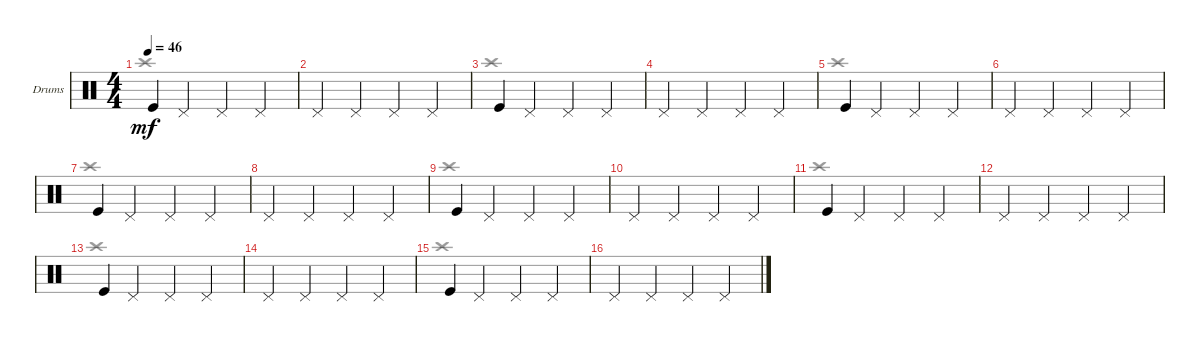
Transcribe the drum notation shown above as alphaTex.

\defaultSystemsLayout 4
\bracketExtendMode groupsimilarinstruments
\firstSystemTrackNameOrientation horizontal
\otherSystemsTrackNameOrientation horizontal
\track ("PETER CRISS" "Drums") {solo instrument percussion}
\staff {score}
\articulation defaults
\voice
\ts (4 4)
\tempo 46
\clef neutral
\ks aminor "Kick (hit)".4{dy mf} "Pedal Hi-Hat (hit)".4 "Pedal Hi-Hat (hit)".4 "Pedal Hi-Hat (hit)".4
|
"Pedal Hi-Hat (hit)".4 "Pedal Hi-Hat (hit)".4 "Pedal Hi-Hat (hit)".4 "Pedal Hi-Hat (hit)".4 |
"Kick (hit)".4 "Pedal Hi-Hat (hit)".4 "Pedal Hi-Hat (hit)".4 "Pedal Hi-Hat (hit)".4 |
"Pedal Hi-Hat (hit)".4 "Pedal Hi-Hat (hit)".4 "Pedal Hi-Hat (hit)".4 "Pedal Hi-Hat (hit)".4 |
"Kick (hit)".4 "Pedal Hi-Hat (hit)".4 "Pedal Hi-Hat (hit)".4 "Pedal Hi-Hat (hit)".4 |
"Pedal Hi-Hat (hit)".4 "Pedal Hi-Hat (hit)".4 "Pedal Hi-Hat (hit)".4 "Pedal Hi-Hat (hit)".4 |
"Kick (hit)".4 "Pedal Hi-Hat (hit)".4 "Pedal Hi-Hat (hit)".4 "Pedal Hi-Hat (hit)".4 |
"Pedal Hi-Hat (hit)".4 "Pedal Hi-Hat (hit)".4 "Pedal Hi-Hat (hit)".4 "Pedal Hi-Hat (hit)".4 |
"Kick (hit)".4 "Pedal Hi-Hat (hit)".4 "Pedal Hi-Hat (hit)".4 "Pedal Hi-Hat (hit)".4 |
"Pedal Hi-Hat (hit)".4 "Pedal Hi-Hat (hit)".4 "Pedal Hi-Hat (hit)".4 "Pedal Hi-Hat (hit)".4 |
"Kick (hit)".4 "Pedal Hi-Hat (hit)".4 "Pedal Hi-Hat (hit)".4 "Pedal Hi-Hat (hit)".4 |
"Pedal Hi-Hat (hit)".4 "Pedal Hi-Hat (hit)".4 "Pedal Hi-Hat (hit)".4 "Pedal Hi-Hat (hit)".4 |
"Kick (hit)".4 "Pedal Hi-Hat (hit)".4 "Pedal Hi-Hat (hit)".4 "Pedal Hi-Hat (hit)".4 |
"Pedal Hi-Hat (hit)".4 "Pedal Hi-Hat (hit)".4 "Pedal Hi-Hat (hit)".4 "Pedal Hi-Hat (hit)".4 |
"Kick (hit)".4 "Pedal Hi-Hat (hit)".4 "Pedal Hi-Hat (hit)".4 "Pedal Hi-Hat (hit)".4 |
"Pedal Hi-Hat (hit)".4 "Pedal Hi-Hat (hit)".4 "Pedal Hi-Hat (hit)".4 "Pedal Hi-Hat (hit)".4
\voice
\clef neutral
\ottava regular
\simile none
\ks aminor "Crash high (hit)".1{dy mf}
|
|
"Crash high (hit)".1 |
|
"Crash high (hit)".1 |
|
"Crash high (hit)".1 |
|
"Crash high (hit)".1 |
|
"Crash high (hit)".1 |
|
"Crash high (hit)".1 |
|
"Crash high (hit)".1 |
